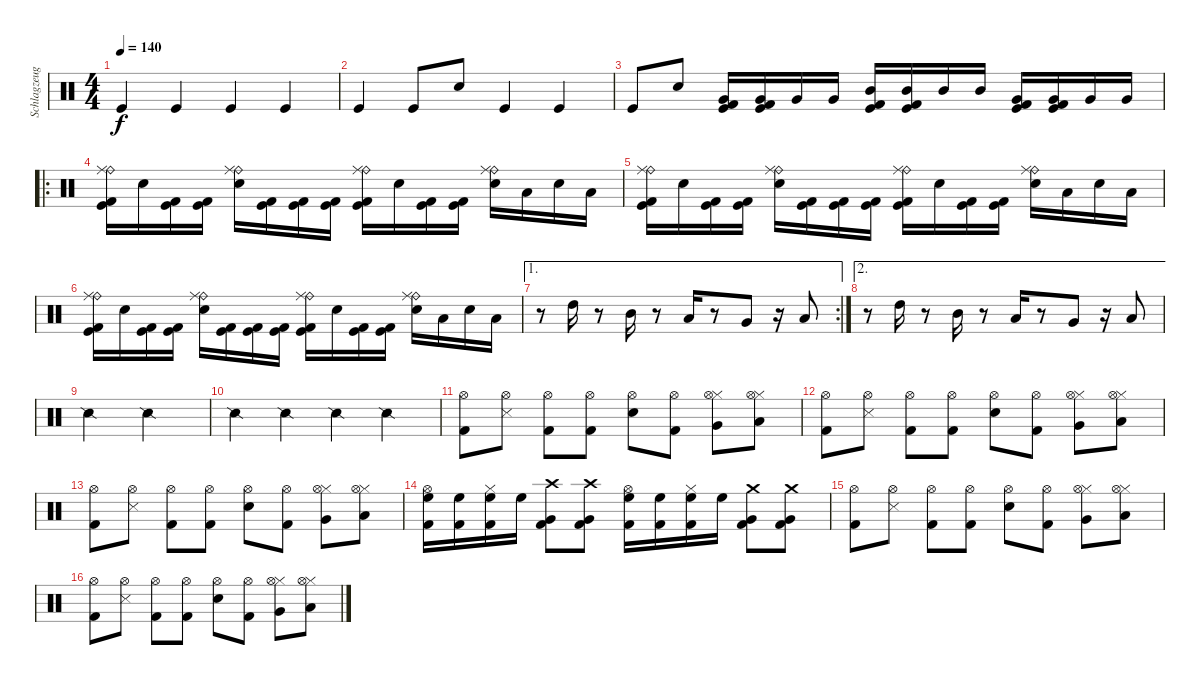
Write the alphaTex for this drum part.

\track ("Schlagzeug" "Schlagzeug") {instrument percussion}
\staff {score}
\articulation defaults
\ts (4 4)
\tempo 140
\clef neutral
\ks c "Kick (hit)".4{dy f} "Kick (hit)".4 "Kick (hit)".4 "Kick (hit)".4
|
"Kick (hit)".4 "Kick (hit)".8 "Snare (hit) 2".8 "Kick (hit)".4 "Kick (hit)".4 |
"Kick (hit)".8 "Snare (hit) 2".8 ("Very Low Tom (hit)" "Kick (hit) 2" "Kick (hit)").16 ("Very Low Tom (hit)" "Kick (hit) 2" "Kick (hit)").16 "Very Low Tom (hit)".16 "Very Low Tom (hit)".16 ("Mid Tom (hit)" "Kick (hit) 2" "Kick (hit)").16 ("Mid Tom (hit)" "Kick (hit) 2" "Kick (hit)").16 "Mid Tom (hit)".16 "Mid Tom (hit)".16 ("Very Low Tom (hit)" "Kick (hit) 2" "Kick (hit)").16 ("Very Low Tom (hit)" "Kick (hit) 2" "Kick (hit)").16 "Very Low Tom (hit)".16 "Very Low Tom (hit)".16 |
\ro
("Ride (bell)" "Ride (middle)" "Kick (hit) 2" "Kick (hit)").16 "Snare (hit) 2".16 ("Kick (hit) 2" "Kick (hit)").16 ("Kick (hit) 2" "Kick (hit)").16 ("Ride (bell)" "Ride (middle)" "Snare (hit) 2").16 ("Kick (hit) 2" "Kick (hit)").16 ("Kick (hit) 2" "Kick (hit)").16 ("Kick (hit) 2" "Kick (hit)").16 ("Ride (bell)" "Ride (middle)" "Kick (hit) 2" "Kick (hit)").16 "Snare (hit) 2".16 ("Kick (hit) 2" "Kick (hit)").16 ("Kick (hit) 2" "Kick (hit)").16 ("Ride (bell)" "Ride (middle)" "Snare (hit) 2").16 "Low Tom (hit)".16 "Snare (hit) 2".16 "Low Tom (hit)".16 |
("Ride (bell)" "Ride (middle)" "Kick (hit) 2" "Kick (hit)").16 "Snare (hit) 2".16 ("Kick (hit) 2" "Kick (hit)").16 ("Kick (hit) 2" "Kick (hit)").16 ("Ride (bell)" "Ride (middle)" "Snare (hit) 2").16 ("Kick (hit) 2" "Kick (hit)").16 ("Kick (hit) 2" "Kick (hit)").16 ("Kick (hit) 2" "Kick (hit)").16 ("Ride (bell)" "Ride (middle)" "Kick (hit) 2" "Kick (hit)").16 "Snare (hit) 2".16 ("Kick (hit) 2" "Kick (hit)").16 ("Kick (hit) 2" "Kick (hit)").16 ("Ride (bell)" "Ride (middle)" "Snare (hit) 2").16 "Low Tom (hit)".16 "Snare (hit) 2".16 "Low Tom (hit)".16 |
("Ride (bell)" "Ride (middle)" "Kick (hit) 2" "Kick (hit)").16 "Snare (hit) 2".16 ("Kick (hit) 2" "Kick (hit)").16 ("Kick (hit) 2" "Kick (hit)").16 ("Ride (bell)" "Ride (middle)" "Snare (hit) 2").16 ("Kick (hit) 2" "Kick (hit)").16 ("Kick (hit) 2" "Kick (hit)").16 ("Kick (hit) 2" "Kick (hit)").16 ("Ride (bell)" "Ride (middle)" "Kick (hit) 2" "Kick (hit)").16 "Snare (hit) 2".16 ("Kick (hit) 2" "Kick (hit)").16 ("Kick (hit) 2" "Kick (hit)").16 ("Ride (bell)" "Ride (middle)" "Snare (hit) 2").16 "Low Tom (hit)".16 "Snare (hit) 2".16 "Low Tom (hit)".16 |
\ae 1
\rc 2
r.8 "High Tom (hit)".16 r.8 "Mid Tom (hit)".16 r.8 "Low Tom (hit)".16 r.8 "Very Low Tom (hit)".8 r.16 "Low Floor Tom (hit)".8 |
\ae 2
r.8 "High Tom (hit)".16 r.8 "Mid Tom (hit)".16 r.8 "Low Tom (hit)".16 r.8 "Very Low Tom (hit)".8 r.16 "Low Floor Tom (hit)".8 |
"Snare (side stick) 2".2 "Snare (side stick) 2".2 |
"Snare (side stick) 2".4 "Snare (side stick) 2".4 "Snare (side stick) 2".4 "Snare (side stick) 2".4 |
("Hi-Hat (open)" "Kick (hit) 2").8 ("Hi-Hat (open)" "Snare (side stick) 3").8 ("Hi-Hat (open)" "Kick (hit) 2").8 ("Hi-Hat (open)" "Kick (hit) 2").8 ("Hi-Hat (open)" "Snare (hit) 2").8 ("Hi-Hat (open)" "Kick (hit) 2").8 ("Hi-Hat (closed)" "Very Low Tom (hit)" "Hi-Hat (open)").8 ("Hi-Hat (closed)" "Low Floor Tom (hit)" "Hi-Hat (open)").8 |
("Hi-Hat (open)" "Kick (hit) 2").8 ("Hi-Hat (open)" "Snare (side stick) 3").8 ("Hi-Hat (open)" "Kick (hit) 2").8 ("Hi-Hat (open)" "Kick (hit) 2").8 ("Hi-Hat (open)" "Snare (hit) 2").8 ("Hi-Hat (open)" "Kick (hit) 2").8 ("Hi-Hat (closed)" "Very Low Tom (hit)" "Hi-Hat (open)").8 ("Hi-Hat (closed)" "Low Floor Tom (hit)" "Hi-Hat (open)").8 |
("Hi-Hat (open)" "Kick (hit) 2").8 ("Hi-Hat (open)" "Snare (side stick) 3").8 ("Hi-Hat (open)" "Kick (hit) 2").8 ("Hi-Hat (open)" "Kick (hit) 2").8 ("Hi-Hat (open)" "Snare (hit) 2").8 ("Hi-Hat (open)" "Kick (hit) 2").8 ("Hi-Hat (closed)" "Very Low Tom (hit)" "Hi-Hat (open)").8 ("Hi-Hat (closed)" "Low Floor Tom (hit)" "Hi-Hat (open)").8 |
("High Floor Tom (hit)" "Hi-Hat (open)" "Kick (hit) 2").16 ("High Floor Tom (hit)" "Kick (hit) 2").16 ("High Floor Tom (hit)" "Hi-Hat (closed)" "Kick (hit) 2").16 "High Floor Tom (hit)".16 ("Very Low Tom (hit)" "Crash high (hit)" "Kick (hit) 2").8 ("Very Low Tom (hit)" "Crash high (hit)" "Kick (hit) 2").8 ("High Floor Tom (hit)" "Hi-Hat (open)" "Kick (hit) 2").16 ("High Floor Tom (hit)" "Kick (hit) 2").16 ("High Floor Tom (hit)" "Hi-Hat (closed)" "Kick (hit) 2").16 "High Floor Tom (hit)".16 ("Very Low Tom (hit)" "Crash medium (hit)" "Kick (hit) 2").8 ("Very Low Tom (hit)" "Crash medium (hit)" "Kick (hit) 2").8 |
("Hi-Hat (open)" "Kick (hit) 2").8 ("Hi-Hat (open)" "Snare (side stick) 3").8 ("Hi-Hat (open)" "Kick (hit) 2").8 ("Hi-Hat (open)" "Kick (hit) 2").8 ("Hi-Hat (open)" "Snare (hit) 2").8 ("Hi-Hat (open)" "Kick (hit) 2").8 ("Hi-Hat (closed)" "Very Low Tom (hit)" "Hi-Hat (open)").8 ("Hi-Hat (closed)" "Low Floor Tom (hit)" "Hi-Hat (open)").8 |
("Hi-Hat (open)" "Kick (hit) 2").8 ("Hi-Hat (open)" "Snare (side stick) 3").8 ("Hi-Hat (open)" "Kick (hit) 2").8 ("Hi-Hat (open)" "Kick (hit) 2").8 ("Hi-Hat (open)" "Snare (hit) 2").8 ("Hi-Hat (open)" "Kick (hit) 2").8 ("Hi-Hat (closed)" "Very Low Tom (hit)" "Hi-Hat (open)").8 ("Hi-Hat (closed)" "Low Floor Tom (hit)" "Hi-Hat (open)").8
